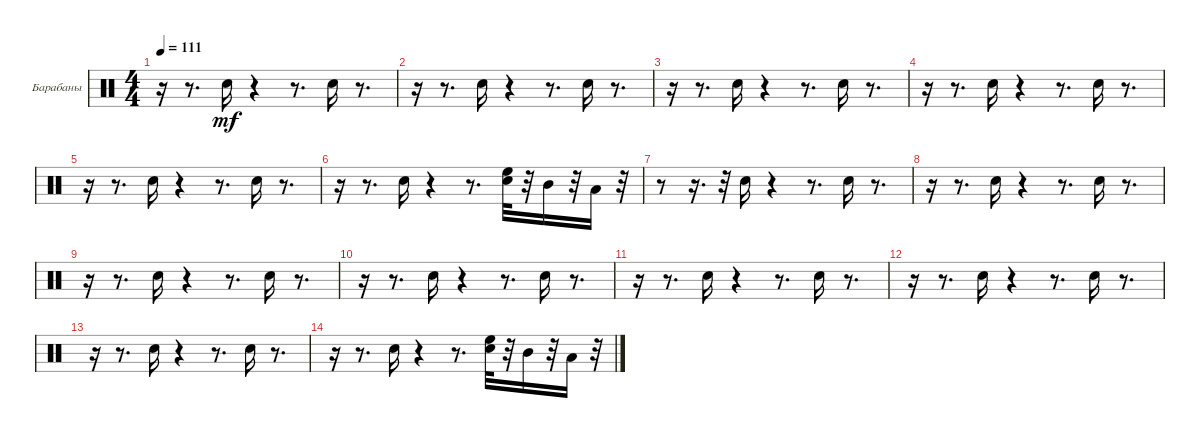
\bracketExtendMode groupsimilarinstruments
\firstSystemTrackNameOrientation horizontal
\otherSystemsTrackNameOrientation horizontal
\track ("Барабаны" "Барабаны") {instrument percussion}
\staff {score}
\articulation defaults
\ts (4 4)
\tempo 111
\clef neutral
\ks c
r.16{dy mf} r.8{d} "Snare (hit) 2".16 r.4 r.8{d} "Snare (hit) 2".16 r.8{d} |
r.16 r.8{d} "Snare (hit) 2".16 r.4 r.8{d} "Snare (hit) 2".16 r.8{d} |
r.16 r.8{d} "Snare (hit) 2".16 r.4 r.8{d} "Snare (hit) 2".16 r.8{d} |
r.16 r.8{d} "Snare (hit) 2".16 r.4 r.8{d} "Snare (hit) 2".16 r.8{d} |
r.16 r.8{d} "Snare (hit) 2".16 r.4 r.8{d} "Snare (hit) 2".16 r.8{d} |
r.16 r.8{d} "Snare (hit) 2".16 r.4 r.8{d} ("Snare (hit) 2" "High Floor Tom (hit)").32 r.32 "Mid Tom (hit)".16 r.32 "Low Tom (hit)".16 r.32 |
r.8 r.16{d} r.32 "Snare (hit) 2".16 r.4 r.8{d} "Snare (hit) 2".16 r.8{d} |
r.16 r.8{d} "Snare (hit) 2".16 r.4 r.8{d} "Snare (hit) 2".16 r.8{d} |
r.16 r.8{d} "Snare (hit) 2".16 r.4 r.8{d} "Snare (hit) 2".16 r.8{d} |
r.16 r.8{d} "Snare (hit) 2".16 r.4 r.8{d} "Snare (hit) 2".16 r.8{d} |
r.16 r.8{d} "Snare (hit) 2".16 r.4 r.8{d} "Snare (hit) 2".16 r.8{d} |
r.16 r.8{d} "Snare (hit) 2".16 r.4 r.8{d} "Snare (hit) 2".16 r.8{d} |
r.16 r.8{d} "Snare (hit) 2".16 r.4 r.8{d} "Snare (hit) 2".16 r.8{d} |
r.16 r.8{d} "Snare (hit) 2".16 r.4 r.8{d} ("Snare (hit) 2" "High Floor Tom (hit)").32 r.32 "Mid Tom (hit)".16 r.32 "Low Tom (hit)".16 r.32
